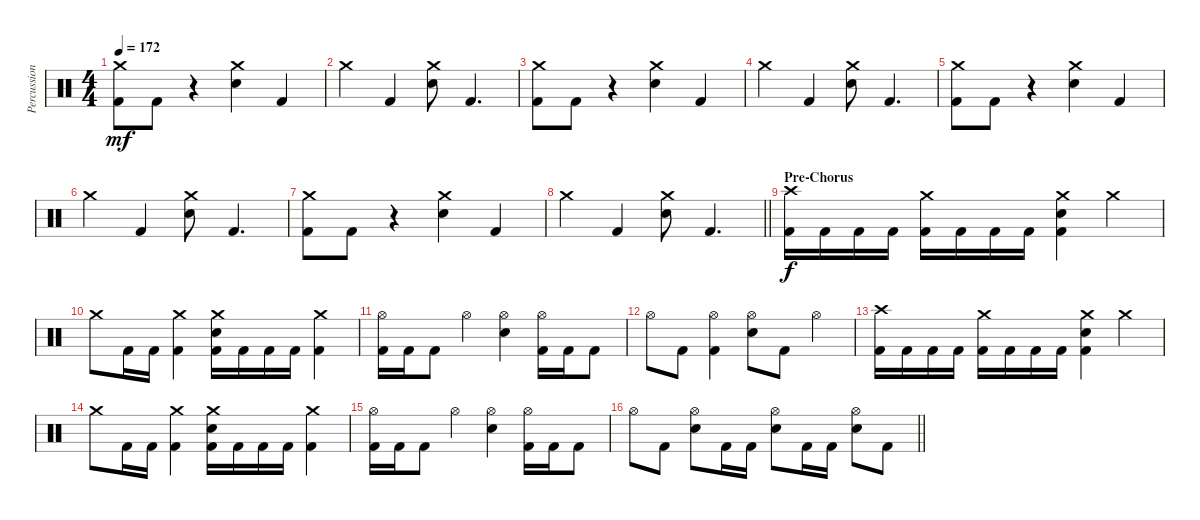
\track ("Percussion" "Percussion") {instrument percussion}
\staff {score}
\articulation defaults
\ts (4 4)
\tempo 172
\clef neutral
\ks c
("Crash medium (hit)" "Kick (hit) 2").8{dy mf} "Kick (hit) 2".8 r.4 ("Crash medium (hit)" "Snare (hit) 2").4 "Kick (hit) 2".4 |
"Crash medium (hit)".4 "Kick (hit) 2".4 ("Crash medium (hit)" "Snare (hit) 2").8 "Kick (hit) 2".4{d} |
("Crash medium (hit)" "Kick (hit) 2").8 "Kick (hit) 2".8 r.4 ("Crash medium (hit)" "Snare (hit) 2").4 "Kick (hit) 2".4 |
"Crash medium (hit)".4 "Kick (hit) 2".4 ("Crash medium (hit)" "Snare (hit) 2").8 "Kick (hit) 2".4{d} |
("Crash medium (hit)" "Kick (hit) 2").8 "Kick (hit) 2".8 r.4 ("Crash medium (hit)" "Snare (hit) 2").4 "Kick (hit) 2".4 |
"Crash medium (hit)".4 "Kick (hit) 2".4 ("Crash medium (hit)" "Snare (hit) 2").8 "Kick (hit) 2".4{d} |
("Crash medium (hit)" "Kick (hit) 2").8 "Kick (hit) 2".8 r.4 ("Crash medium (hit)" "Snare (hit) 2").4 "Kick (hit) 2".4 |
\barLineRight lightlight "Crash medium (hit)".4 "Kick (hit) 2".4
("Crash medium (hit)" "Snare (hit) 2").8 "Kick (hit) 2".4{d} |
\section ("" "Pre-Chorus")
("Crash high (hit)" "Kick (hit) 2").16{dy f} "Kick (hit) 2".16 "Kick (hit) 2".16 "Kick (hit) 2".16 ("Crash medium (hit)" "Kick (hit) 2").16 "Kick (hit) 2".16 "Kick (hit) 2".16 "Kick (hit) 2".16 ("Crash medium (hit)" "Snare (hit) 2" "Kick (hit) 2").4 "Crash medium (hit)".4 |
"Crash medium (hit)".8 "Kick (hit) 2".16 "Kick (hit) 2".16 ("Crash medium (hit)" "Kick (hit) 2").4 ("Crash medium (hit)" "Snare (hit) 2" "Kick (hit) 2").16 "Kick (hit) 2".16 "Kick (hit) 2".16 "Kick (hit) 2".16 ("Crash medium (hit)" "Kick (hit) 2").4 |
("Hi-Hat (open)" "Kick (hit) 2").16 "Kick (hit) 2".16 "Kick (hit) 2".8 "Hi-Hat (open)".4 ("Hi-Hat (open)" "Snare (hit) 2").4 ("Hi-Hat (open)" "Kick (hit) 2").16 "Kick (hit) 2".16 "Kick (hit) 2".8 |
"Hi-Hat (open)".8 "Kick (hit) 2".8 ("Hi-Hat (open)" "Kick (hit) 2").4 ("Hi-Hat (open)" "Snare (hit) 2").8 "Kick (hit) 2".8 "Hi-Hat (open)".4 |
("Crash high (hit)" "Kick (hit) 2").16 "Kick (hit) 2".16 "Kick (hit) 2".16 "Kick (hit) 2".16 ("Crash medium (hit)" "Kick (hit) 2").16 "Kick (hit) 2".16 "Kick (hit) 2".16 "Kick (hit) 2".16 ("Crash medium (hit)" "Snare (hit) 2" "Kick (hit) 2").4 "Crash medium (hit)".4 |
"Crash medium (hit)".8 "Kick (hit) 2".16 "Kick (hit) 2".16 ("Crash medium (hit)" "Kick (hit) 2").4 ("Crash medium (hit)" "Snare (hit) 2" "Kick (hit) 2").16 "Kick (hit) 2".16 "Kick (hit) 2".16 "Kick (hit) 2".16 ("Crash medium (hit)" "Kick (hit) 2").4 |
("Hi-Hat (open)" "Kick (hit) 2").16 "Kick (hit) 2".16 "Kick (hit) 2".8 "Hi-Hat (open)".4 ("Hi-Hat (open)" "Snare (hit) 2").4 ("Hi-Hat (open)" "Kick (hit) 2").16 "Kick (hit) 2".16 "Kick (hit) 2".8 |
\barLineRight lightlight "Hi-Hat (open)".8 "Kick (hit) 2".8
("Hi-Hat (open)" "Snare (hit) 2").8 "Kick (hit) 2".16 "Kick (hit) 2".16 ("Hi-Hat (open)" "Snare (hit) 2").8 "Kick (hit) 2".16 "Kick (hit) 2".16 ("Hi-Hat (open)" "Snare (hit) 2").8 "Kick (hit) 2".8
